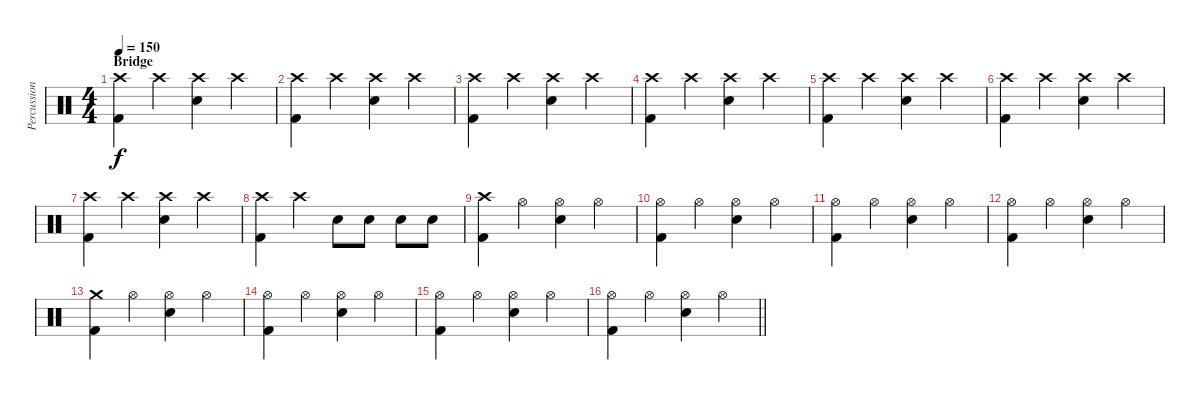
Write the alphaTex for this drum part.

\track ("Percussion" "Percussion") {instrument percussion}
\staff {score}
\articulation defaults
\ts (4 4)
\section ("" "Bridge")
\tempo 150
\clef neutral
\ks c
("Crash high (hit)" "Kick (hit) 2").4{dy f} "Crash high (hit)".4 ("Crash high (hit)" "Snare (hit) 2").4 "Crash high (hit)".4 |
("Crash high (hit)" "Kick (hit) 2").4 "Crash high (hit)".4 ("Crash high (hit)" "Snare (hit) 2").4 "Crash high (hit)".4 |
("Crash high (hit)" "Kick (hit) 2").4 "Crash high (hit)".4 ("Crash high (hit)" "Snare (hit) 2").4 "Crash high (hit)".4 |
("Crash high (hit)" "Kick (hit) 2").4 "Crash high (hit)".4 ("Crash high (hit)" "Snare (hit) 2").4 "Crash high (hit)".4 |
("Crash high (hit)" "Kick (hit) 2").4 "Crash high (hit)".4 ("Crash high (hit)" "Snare (hit) 2").4 "Crash high (hit)".4 |
("Crash high (hit)" "Kick (hit) 2").4 "Crash high (hit)".4 ("Crash high (hit)" "Snare (hit) 2").4 "Crash high (hit)".4 |
("Crash high (hit)" "Kick (hit) 2").4 "Crash high (hit)".4 ("Crash high (hit)" "Snare (hit) 2").4 "Crash high (hit)".4 |
("Crash high (hit)" "Kick (hit) 2").4 "Crash high (hit)".4 "Snare (hit) 2".8 "Snare (hit) 2".8 "Snare (hit) 2".8 "Snare (hit) 2".8 |
("Crash high (hit)" "Kick (hit) 2").4 "Hi-Hat (open)".4 ("Hi-Hat (open)" "Snare (hit) 2").4 "Hi-Hat (open)".4 |
("Hi-Hat (open)" "Kick (hit) 2").4 "Hi-Hat (open)".4 ("Hi-Hat (open)" "Snare (hit) 2").4 "Hi-Hat (open)".4 |
("Hi-Hat (open)" "Kick (hit) 2").4 "Hi-Hat (open)".4 ("Hi-Hat (open)" "Snare (hit) 2").4 "Hi-Hat (open)".4 |
("Hi-Hat (open)" "Kick (hit) 2").4 "Hi-Hat (open)".4 ("Hi-Hat (open)" "Snare (hit) 2").4 "Hi-Hat (open)".4 |
("Crash medium (hit)" "Kick (hit) 2").4 "Hi-Hat (open)".4 ("Hi-Hat (open)" "Snare (hit) 2").4 "Hi-Hat (open)".4 |
("Hi-Hat (open)" "Kick (hit) 2").4 "Hi-Hat (open)".4 ("Hi-Hat (open)" "Snare (hit) 2").4 "Hi-Hat (open)".4 |
("Hi-Hat (open)" "Kick (hit) 2").4 "Hi-Hat (open)".4 ("Hi-Hat (open)" "Snare (hit) 2").4 "Hi-Hat (open)".4 |
\barLineRight lightlight
("Hi-Hat (open)" "Kick (hit) 2").4 "Hi-Hat (open)".4 ("Hi-Hat (open)" "Snare (hit) 2").4 "Hi-Hat (open)".4
